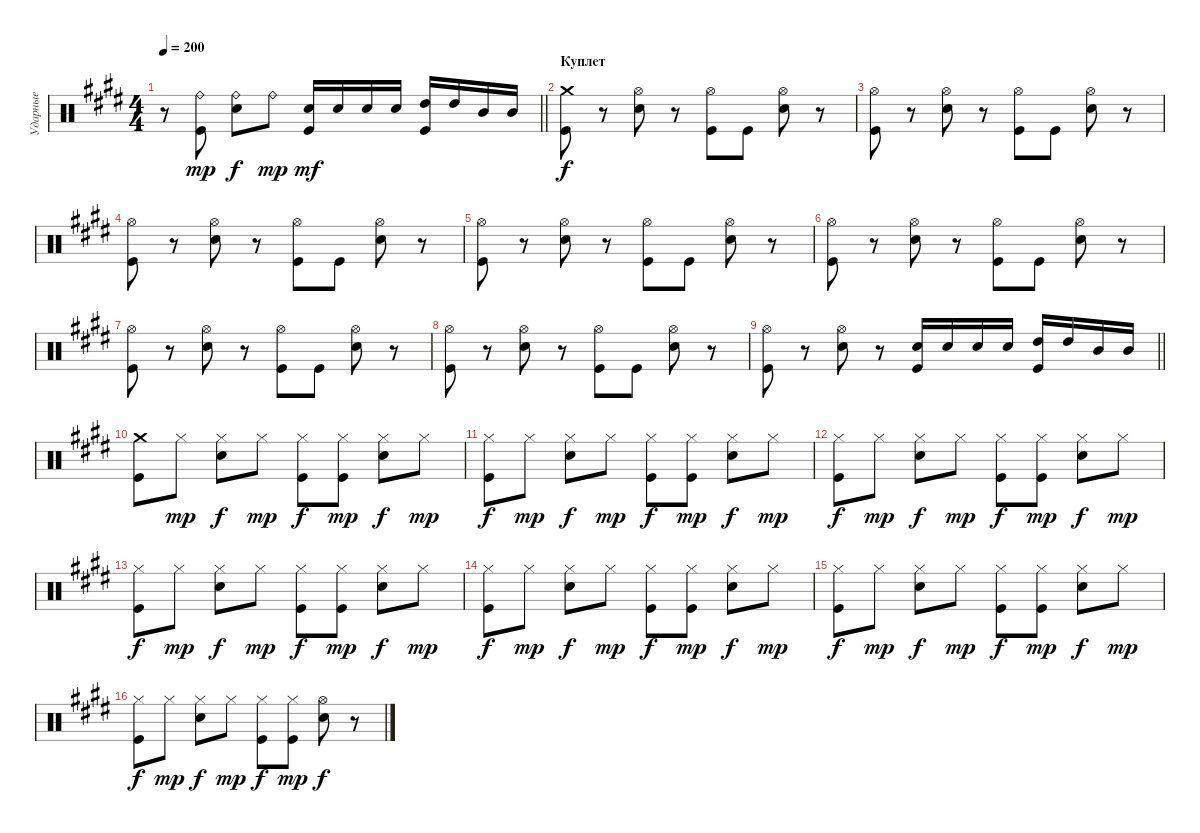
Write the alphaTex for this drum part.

\track ("Ударные" "Ударные") {instrument percussion}
\staff {score}
\articulation defaults
\ts (4 4)
\tempo 200
\clef neutral
\barLineRight lightlight
\ks c#minor
r.8{dy f} ("Ride (bell)" "Kick (hit)").8{dy mp} ("Ride (bell)" "Electric Snare (hit)").8{dy f} "Ride (bell)".8{dy mp} ("Electric Snare (hit)" "Kick (hit)").16{dy mf} "Electric Snare (hit)".16 "Electric Snare (hit)".16 "Electric Snare (hit)".16 ("High Tom (hit)" "Kick (hit)").16 "High Tom (hit)".16 "Mid Tom (hit)".16 "Mid Tom (hit)".16 |
\section ("" "Куплет")
("Crash medium (hit)" "Kick (hit)").8{dy f} r.8 ("Hi-Hat (open)" "Electric Snare (hit)").8 r.8 ("Hi-Hat (open)" "Kick (hit)").8 "Kick (hit)".8 ("Hi-Hat (open)" "Electric Snare (hit)").8 r.8 |
("Hi-Hat (open)" "Kick (hit)").8 r.8 ("Hi-Hat (open)" "Electric Snare (hit)").8 r.8 ("Hi-Hat (open)" "Kick (hit)").8 "Kick (hit)".8 ("Hi-Hat (open)" "Electric Snare (hit)").8 r.8 |
("Hi-Hat (open)" "Kick (hit)").8 r.8 ("Hi-Hat (open)" "Electric Snare (hit)").8 r.8 ("Hi-Hat (open)" "Kick (hit)").8 "Kick (hit)".8 ("Hi-Hat (open)" "Electric Snare (hit)").8 r.8 |
("Hi-Hat (open)" "Kick (hit)").8 r.8 ("Hi-Hat (open)" "Electric Snare (hit)").8 r.8 ("Hi-Hat (open)" "Kick (hit)").8 "Kick (hit)".8 ("Hi-Hat (open)" "Electric Snare (hit)").8 r.8 |
("Hi-Hat (open)" "Kick (hit)").8 r.8 ("Hi-Hat (open)" "Electric Snare (hit)").8 r.8 ("Hi-Hat (open)" "Kick (hit)").8 "Kick (hit)".8 ("Hi-Hat (open)" "Electric Snare (hit)").8 r.8 |
("Hi-Hat (open)" "Kick (hit)").8 r.8 ("Hi-Hat (open)" "Electric Snare (hit)").8 r.8 ("Hi-Hat (open)" "Kick (hit)").8 "Kick (hit)".8 ("Hi-Hat (open)" "Electric Snare (hit)").8 r.8 |
("Hi-Hat (open)" "Kick (hit)").8 r.8 ("Hi-Hat (open)" "Electric Snare (hit)").8 r.8 ("Hi-Hat (open)" "Kick (hit)").8 "Kick (hit)".8 ("Hi-Hat (open)" "Electric Snare (hit)").8 r.8 |
\barLineRight lightlight
("Hi-Hat (open)" "Kick (hit)").8 r.8 ("Hi-Hat (open)" "Electric Snare (hit)").8 r.8 ("Electric Snare (hit)" "Kick (hit)").16 "Electric Snare (hit)".16 "Electric Snare (hit)".16 "Electric Snare (hit)".16 ("High Tom (hit)" "Kick (hit)").16 "High Tom (hit)".16 "Mid Tom (hit)".16 "Mid Tom (hit)".16 |
\section ("" " ")
("Crash medium (hit)" "Kick (hit)").8 "Hi-Hat (closed)".8{dy mp} ("Hi-Hat (closed)" "Electric Snare (hit)").8{dy f} "Hi-Hat (closed)".8{dy mp} ("Hi-Hat (closed)" "Kick (hit)").8{dy f} ("Hi-Hat (closed)" "Kick (hit)").8{dy mp} ("Hi-Hat (closed)" "Electric Snare (hit)").8{dy f} "Hi-Hat (closed)".8{dy mp} |
("Hi-Hat (closed)" "Kick (hit)").8{dy f} "Hi-Hat (closed)".8{dy mp} ("Hi-Hat (closed)" "Electric Snare (hit)").8{dy f} "Hi-Hat (closed)".8{dy mp} ("Hi-Hat (closed)" "Kick (hit)").8{dy f} ("Hi-Hat (closed)" "Kick (hit)").8{dy mp} ("Hi-Hat (closed)" "Electric Snare (hit)").8{dy f} "Hi-Hat (closed)".8{dy mp} |
("Hi-Hat (closed)" "Kick (hit)").8{dy f} "Hi-Hat (closed)".8{dy mp} ("Hi-Hat (closed)" "Electric Snare (hit)").8{dy f} "Hi-Hat (closed)".8{dy mp} ("Hi-Hat (closed)" "Kick (hit)").8{dy f} ("Hi-Hat (closed)" "Kick (hit)").8{dy mp} ("Hi-Hat (closed)" "Electric Snare (hit)").8{dy f} "Hi-Hat (closed)".8{dy mp} |
("Hi-Hat (closed)" "Kick (hit)").8{dy f} "Hi-Hat (closed)".8{dy mp} ("Hi-Hat (closed)" "Electric Snare (hit)").8{dy f} "Hi-Hat (closed)".8{dy mp} ("Hi-Hat (closed)" "Kick (hit)").8{dy f} ("Hi-Hat (closed)" "Kick (hit)").8{dy mp} ("Hi-Hat (closed)" "Electric Snare (hit)").8{dy f} "Hi-Hat (closed)".8{dy mp} |
("Hi-Hat (closed)" "Kick (hit)").8{dy f} "Hi-Hat (closed)".8{dy mp} ("Hi-Hat (closed)" "Electric Snare (hit)").8{dy f} "Hi-Hat (closed)".8{dy mp} ("Hi-Hat (closed)" "Kick (hit)").8{dy f} ("Hi-Hat (closed)" "Kick (hit)").8{dy mp} ("Hi-Hat (closed)" "Electric Snare (hit)").8{dy f} "Hi-Hat (closed)".8{dy mp} |
("Hi-Hat (closed)" "Kick (hit)").8{dy f} "Hi-Hat (closed)".8{dy mp} ("Hi-Hat (closed)" "Electric Snare (hit)").8{dy f} "Hi-Hat (closed)".8{dy mp} ("Hi-Hat (closed)" "Kick (hit)").8{dy f} ("Hi-Hat (closed)" "Kick (hit)").8{dy mp} ("Hi-Hat (closed)" "Electric Snare (hit)").8{dy f} "Hi-Hat (closed)".8{dy mp} |
("Hi-Hat (closed)" "Kick (hit)").8{dy f} "Hi-Hat (closed)".8{dy mp} ("Hi-Hat (closed)" "Electric Snare (hit)").8{dy f} "Hi-Hat (closed)".8{dy mp} ("Hi-Hat (closed)" "Kick (hit)").8{dy f} ("Hi-Hat (closed)" "Kick (hit)").8{dy mp} ("Hi-Hat (open)" "Electric Snare (hit)").8{dy f} r.8
